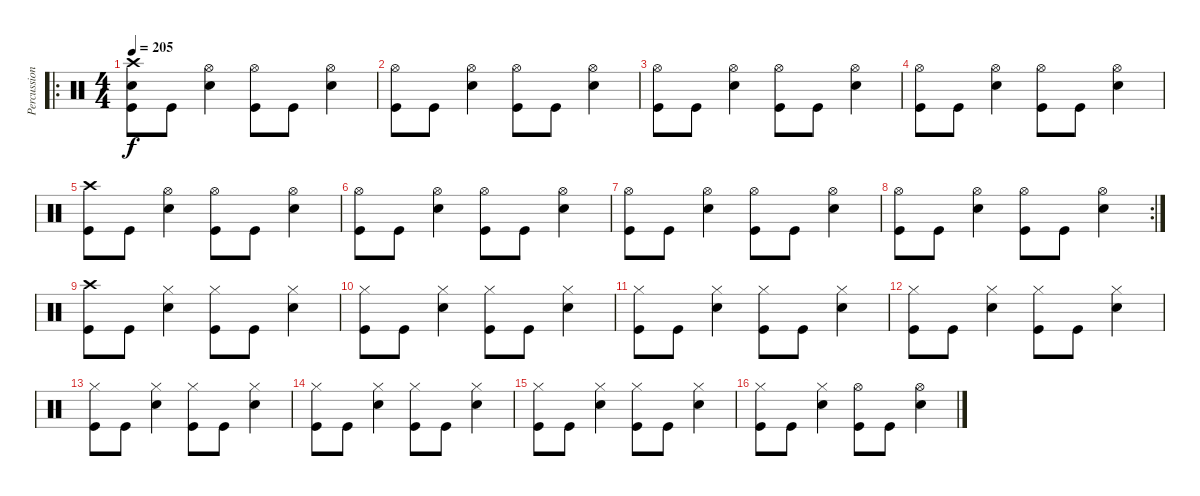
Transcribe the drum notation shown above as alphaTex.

\track ("Percussion" "Percussion") {instrument percussion}
\staff {score}
\articulation defaults
\ro
\ts (4 4)
\tempo 205
\clef neutral
\ks c
("Snare (hit) 2" "Kick (hit)" "Crash high (hit)").8{dy f} "Kick (hit)".8 ("Snare (hit) 2" "Hi-Hat (open)").4 ("Kick (hit)" "Hi-Hat (open)").8 "Kick (hit)".8 ("Snare (hit) 2" "Hi-Hat (open)").4 |
("Kick (hit)" "Hi-Hat (open)").8 "Kick (hit)".8 ("Snare (hit) 2" "Hi-Hat (open)").4 ("Kick (hit)" "Hi-Hat (open)").8 "Kick (hit)".8 ("Snare (hit) 2" "Hi-Hat (open)").4 |
("Kick (hit)" "Hi-Hat (open)").8 "Kick (hit)".8 ("Snare (hit) 2" "Hi-Hat (open)").4 ("Kick (hit)" "Hi-Hat (open)").8 "Kick (hit)".8 ("Snare (hit) 2" "Hi-Hat (open)").4 |
("Kick (hit)" "Hi-Hat (open)").8 "Kick (hit)".8 ("Snare (hit) 2" "Hi-Hat (open)").4 ("Kick (hit)" "Hi-Hat (open)").8 "Kick (hit)".8 ("Snare (hit) 2" "Hi-Hat (open)").4 |
("Kick (hit)" "Crash high (hit)").8 "Kick (hit)".8 ("Snare (hit) 2" "Hi-Hat (open)").4 ("Kick (hit)" "Hi-Hat (open)").8 "Kick (hit)".8 ("Snare (hit) 2" "Hi-Hat (open)").4 |
("Kick (hit)" "Hi-Hat (open)").8 "Kick (hit)".8 ("Snare (hit) 2" "Hi-Hat (open)").4 ("Kick (hit)" "Hi-Hat (open)").8 "Kick (hit)".8 ("Snare (hit) 2" "Hi-Hat (open)").4 |
("Kick (hit)" "Hi-Hat (open)").8 "Kick (hit)".8 ("Snare (hit) 2" "Hi-Hat (open)").4 ("Kick (hit)" "Hi-Hat (open)").8 "Kick (hit)".8 ("Snare (hit) 2" "Hi-Hat (open)").4 |
\rc 2
("Kick (hit)" "Hi-Hat (open)").8 "Kick (hit)".8 ("Snare (hit) 2" "Hi-Hat (open)").4 ("Kick (hit)" "Hi-Hat (open)").8 "Kick (hit)".8 ("Snare (hit) 2" "Hi-Hat (open)").4 |
("Kick (hit)" "Crash high (hit)").8 "Kick (hit)".8 ("Snare (hit) 2" "Hi-Hat (closed)").4 ("Kick (hit)" "Hi-Hat (closed)").8 "Kick (hit)".8 ("Snare (hit) 2" "Hi-Hat (closed)").4 |
("Kick (hit)" "Hi-Hat (closed)").8 "Kick (hit)".8 ("Snare (hit) 2" "Hi-Hat (closed)").4 ("Kick (hit)" "Hi-Hat (closed)").8 "Kick (hit)".8 ("Snare (hit) 2" "Hi-Hat (closed)").4 |
("Kick (hit)" "Hi-Hat (closed)").8 "Kick (hit)".8 ("Snare (hit) 2" "Hi-Hat (closed)").4 ("Kick (hit)" "Hi-Hat (closed)").8 "Kick (hit)".8 ("Snare (hit) 2" "Hi-Hat (closed)").4 |
("Kick (hit)" "Hi-Hat (closed)").8 "Kick (hit)".8 ("Snare (hit) 2" "Hi-Hat (closed)").4 ("Kick (hit)" "Hi-Hat (closed)").8 "Kick (hit)".8 ("Snare (hit) 2" "Hi-Hat (closed)").4 |
("Kick (hit)" "Hi-Hat (closed)").8 "Kick (hit)".8 ("Snare (hit) 2" "Hi-Hat (closed)").4 ("Kick (hit)" "Hi-Hat (closed)").8 "Kick (hit)".8 ("Snare (hit) 2" "Hi-Hat (closed)").4 |
("Kick (hit)" "Hi-Hat (closed)").8 "Kick (hit)".8 ("Snare (hit) 2" "Hi-Hat (closed)").4 ("Kick (hit)" "Hi-Hat (closed)").8 "Kick (hit)".8 ("Snare (hit) 2" "Hi-Hat (closed)").4 |
("Kick (hit)" "Hi-Hat (closed)").8 "Kick (hit)".8 ("Snare (hit) 2" "Hi-Hat (closed)").4 ("Kick (hit)" "Hi-Hat (closed)").8 "Kick (hit)".8 ("Snare (hit) 2" "Hi-Hat (closed)").4 |
("Kick (hit)" "Hi-Hat (closed)").8 "Kick (hit)".8 ("Snare (hit) 2" "Hi-Hat (closed)").4 ("Kick (hit)" "Hi-Hat (open)").8 "Kick (hit)".8 ("Snare (hit) 2" "Hi-Hat (open)").4
